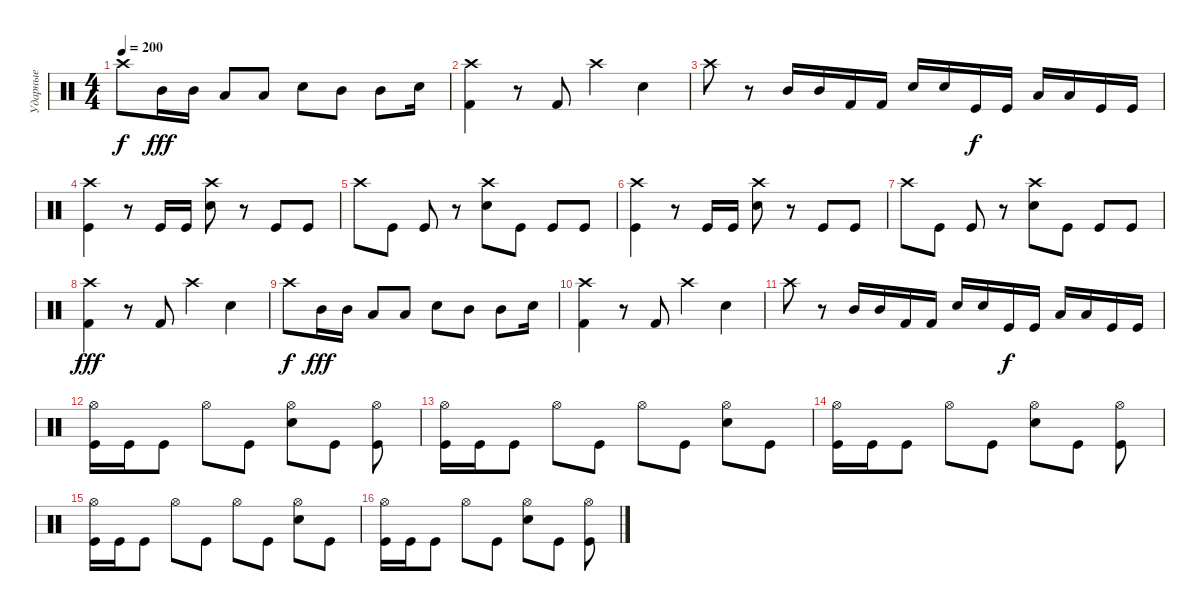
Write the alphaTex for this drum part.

\track ("Ударные" "Ударные") {instrument percussion}
\staff {score}
\articulation defaults
\ts (4 4)
\tempo 200
\clef neutral
\ks c "Crash high (hit)".8{dy f} "Mid Tom (hit)".16{dy fff} "Mid Tom (hit)".16 "Low Tom (hit)".8 "Low Tom (hit)".8 "Electric Snare (hit)".8 "Mid Tom (hit)".8 "Mid Tom (hit)".8 "Electric Snare (hit)".16
|
("Crash high (hit)" "Kick (hit) 2").4 r.8 "Kick (hit) 2".8 "Crash high (hit)".4 "Electric Snare (hit)".4 |
"Crash high (hit)".8 r.8 "Mid Tom (hit)".16 "Mid Tom (hit)".16 "Kick (hit) 2".16 "Kick (hit) 2".16 "Electric Snare (hit)".16 "Electric Snare (hit)".16 "Kick (hit)".16{dy f} "Kick (hit)".16 "Low Tom (hit)".16 "Low Tom (hit)".16 "Kick (hit)".16 "Kick (hit)".16 |
("Kick (hit)" "Crash high (hit)").4 r.8 "Kick (hit)".16 "Kick (hit)".16 ("Snare (hit) 2" "Crash high (hit)").8 r.8 "Kick (hit)".8 "Kick (hit)".8 |
"Crash high (hit)".8 "Kick (hit)".8 "Kick (hit)".8 r.8 ("Snare (hit) 2" "Crash high (hit)").8 "Kick (hit)".8 "Kick (hit)".8 "Kick (hit)".8 |
("Kick (hit)" "Crash high (hit)").4 r.8 "Kick (hit)".16 "Kick (hit)".16 ("Snare (hit) 2" "Crash high (hit)").8 r.8 "Kick (hit)".8 "Kick (hit)".8 |
"Crash high (hit)".8 "Kick (hit)".8 "Kick (hit)".8 r.8 ("Snare (hit) 2" "Crash high (hit)").8 "Kick (hit)".8 "Kick (hit)".8 "Kick (hit)".8 |
("Crash high (hit)" "Kick (hit) 2").4{dy fff} r.8 "Kick (hit) 2".8 "Crash high (hit)".4 "Electric Snare (hit)".4 |
"Crash high (hit)".8{dy f} "Mid Tom (hit)".16{dy fff} "Mid Tom (hit)".16 "Low Tom (hit)".8 "Low Tom (hit)".8 "Electric Snare (hit)".8 "Mid Tom (hit)".8 "Mid Tom (hit)".8 "Electric Snare (hit)".16 |
("Crash high (hit)" "Kick (hit) 2").4 r.8 "Kick (hit) 2".8 "Crash high (hit)".4 "Electric Snare (hit)".4 |
"Crash high (hit)".8 r.8 "Mid Tom (hit)".16 "Mid Tom (hit)".16 "Kick (hit) 2".16 "Kick (hit) 2".16 "Electric Snare (hit)".16 "Electric Snare (hit)".16 "Kick (hit)".16{dy f} "Kick (hit)".16 "Low Tom (hit)".16 "Low Tom (hit)".16 "Kick (hit)".16 "Kick (hit)".16 |
("Kick (hit)" "Hi-Hat (open)").16 "Kick (hit)".16 "Kick (hit)".8 "Hi-Hat (open)".8 "Kick (hit)".8 ("Snare (hit) 2" "Hi-Hat (open)").8 "Kick (hit)".8 ("Kick (hit)" "Hi-Hat (open)").8 |
("Kick (hit)" "Hi-Hat (open)").16 "Kick (hit)".16 "Kick (hit)".8 "Hi-Hat (open)".8 "Kick (hit)".8 "Hi-Hat (open)".8 "Kick (hit)".8 ("Snare (hit) 2" "Hi-Hat (open)").8 "Kick (hit)".8 |
("Kick (hit)" "Hi-Hat (open)").16 "Kick (hit)".16 "Kick (hit)".8 "Hi-Hat (open)".8 "Kick (hit)".8 ("Snare (hit) 2" "Hi-Hat (open)").8 "Kick (hit)".8 ("Kick (hit)" "Hi-Hat (open)").8 |
("Kick (hit)" "Hi-Hat (open)").16 "Kick (hit)".16 "Kick (hit)".8 "Hi-Hat (open)".8 "Kick (hit)".8 "Hi-Hat (open)".8 "Kick (hit)".8 ("Snare (hit) 2" "Hi-Hat (open)").8 "Kick (hit)".8 |
("Kick (hit)" "Hi-Hat (open)").16 "Kick (hit)".16 "Kick (hit)".8 "Hi-Hat (open)".8 "Kick (hit)".8 ("Snare (hit) 2" "Hi-Hat (open)").8 "Kick (hit)".8 ("Kick (hit)" "Hi-Hat (open)").8
